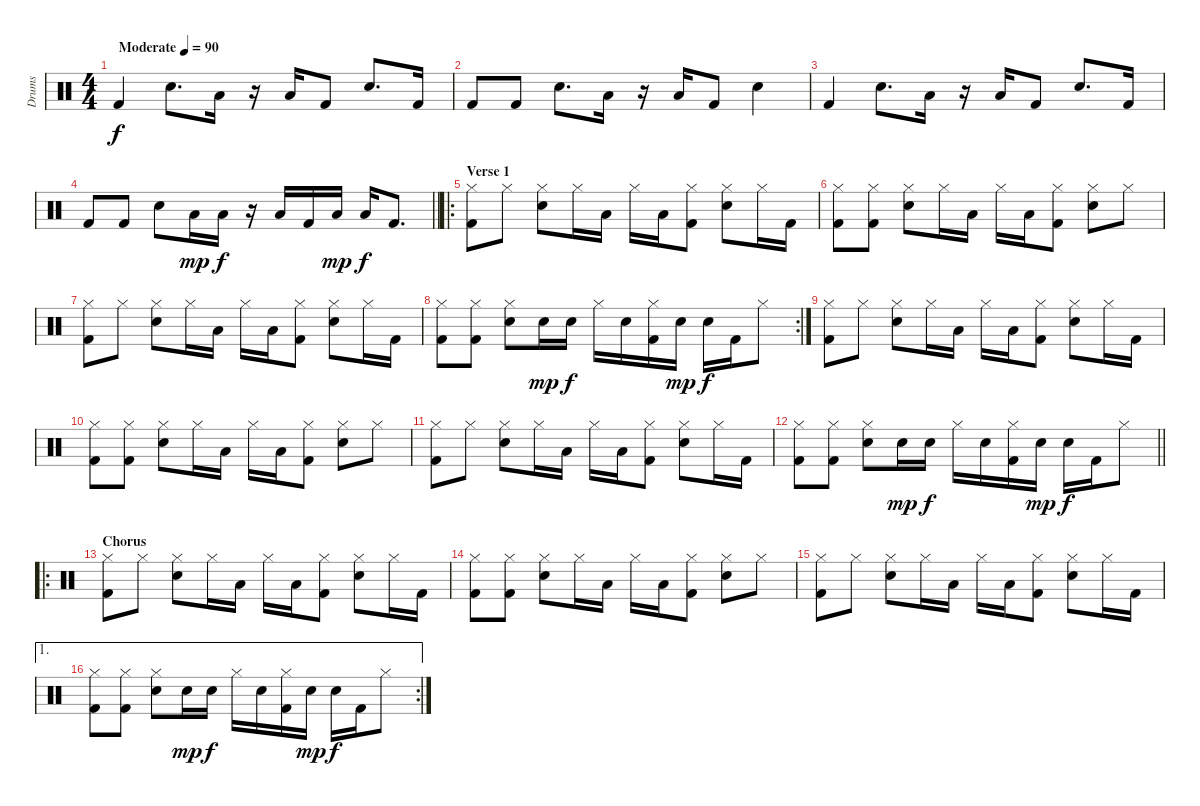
\track ("Drums" "Drums") {instrument percussion}
\staff {score}
\articulation defaults
\ts (4 4)
\tempo (90 "Moderate")
\clef neutral
\ks c "Kick (hit) 2".4{dy f} "Hand Clap (hit)".8{d} "Low Tom (hit)".16
r.16 "Low Tom (hit)".16 "Kick (hit) 2".8 "Hand Clap (hit)".8{d} "Kick (hit) 2".16 |
"Kick (hit) 2".8 "Kick (hit) 2".8 "Hand Clap (hit)".8{d} "Low Tom (hit)".16 r.16 "Low Tom (hit)".16 "Kick (hit) 2".8 "Hand Clap (hit)".4 |
"Kick (hit) 2".4 "Hand Clap (hit)".8{d} "Low Tom (hit)".16 r.16 "Low Tom (hit)".16 "Kick (hit) 2".8 "Hand Clap (hit)".8{d} "Kick (hit) 2".16 |
\barLineRight lightlight "Kick (hit) 2".8 "Kick (hit) 2".8 "Hand Clap (hit)".8 "Low Tom (hit)".16{dy mp} "Low Tom (hit)".16{dy f}
r.16 "Low Tom (hit)".16 "Kick (hit) 2".16 "Low Tom (hit)".16{dy mp} "Low Tom (hit)".16{dy f} "Kick (hit) 2".8{d} |
\ro
\section ("" "Verse 1")
("Hi-Hat (closed)" "Kick (hit) 2").8 "Hi-Hat (closed)".8 ("Hand Clap (hit)" "Hi-Hat (closed)").8 "Hi-Hat (closed)".16 "Low Tom (hit)".16 "Hi-Hat (closed)".16 "Low Tom (hit)".16 ("Hi-Hat (closed)" "Kick (hit) 2").8 ("Hand Clap (hit)" "Hi-Hat (closed)").8 "Hi-Hat (closed)".16 "Kick (hit) 2".16 |
("Hi-Hat (closed)" "Kick (hit) 2").8 ("Hi-Hat (closed)" "Kick (hit) 2").8 ("Hand Clap (hit)" "Hi-Hat (closed)").8 "Hi-Hat (closed)".16 "Low Tom (hit)".16 "Hi-Hat (closed)".16 "Low Tom (hit)".16 ("Hi-Hat (closed)" "Kick (hit) 2").8 ("Hand Clap (hit)" "Hi-Hat (closed)").8 "Hi-Hat (closed)".8 |
("Hi-Hat (closed)" "Kick (hit) 2").8 "Hi-Hat (closed)".8 ("Hand Clap (hit)" "Hi-Hat (closed)").8 "Hi-Hat (closed)".16 "Low Tom (hit)".16 "Hi-Hat (closed)".16 "Low Tom (hit)".16 ("Hi-Hat (closed)" "Kick (hit) 2").8 ("Hand Clap (hit)" "Hi-Hat (closed)").8 "Hi-Hat (closed)".16 "Kick (hit) 2".16 |
\rc 2
("Hi-Hat (closed)" "Kick (hit) 2").8 ("Hi-Hat (closed)" "Kick (hit) 2").8 ("Hand Clap (hit)" "Hi-Hat (closed)").8 "Electric Snare (hit)".16{dy mp} "Electric Snare (hit)".16{dy f} "Hi-Hat (closed)".16 "Electric Snare (hit)".16 ("Hi-Hat (closed)" "Kick (hit) 2").16 "Electric Snare (hit)".16{dy mp} "Electric Snare (hit)".16{dy f} "Kick (hit) 2".16 "Hi-Hat (closed)".8 |
("Hi-Hat (closed)" "Kick (hit) 2").8 "Hi-Hat (closed)".8 ("Hand Clap (hit)" "Hi-Hat (closed)").8 "Hi-Hat (closed)".16 "Low Tom (hit)".16 "Hi-Hat (closed)".16 "Low Tom (hit)".16 ("Hi-Hat (closed)" "Kick (hit) 2").8 ("Hand Clap (hit)" "Hi-Hat (closed)").8 "Hi-Hat (closed)".16 "Kick (hit) 2".16 |
("Hi-Hat (closed)" "Kick (hit) 2").8 ("Hi-Hat (closed)" "Kick (hit) 2").8 ("Hand Clap (hit)" "Hi-Hat (closed)").8 "Hi-Hat (closed)".16 "Low Tom (hit)".16 "Hi-Hat (closed)".16 "Low Tom (hit)".16 ("Hi-Hat (closed)" "Kick (hit) 2").8 ("Hand Clap (hit)" "Hi-Hat (closed)").8 "Hi-Hat (closed)".8 |
("Hi-Hat (closed)" "Kick (hit) 2").8 "Hi-Hat (closed)".8 ("Hand Clap (hit)" "Hi-Hat (closed)").8 "Hi-Hat (closed)".16 "Low Tom (hit)".16 "Hi-Hat (closed)".16 "Low Tom (hit)".16 ("Hi-Hat (closed)" "Kick (hit) 2").8 ("Hand Clap (hit)" "Hi-Hat (closed)").8 "Hi-Hat (closed)".16 "Kick (hit) 2".16 |
\barLineRight lightlight
("Hi-Hat (closed)" "Kick (hit) 2").8 ("Hi-Hat (closed)" "Kick (hit) 2").8 ("Hand Clap (hit)" "Hi-Hat (closed)").8 "Electric Snare (hit)".16{dy mp} "Electric Snare (hit)".16{dy f} "Hi-Hat (closed)".16 "Electric Snare (hit)".16 ("Hi-Hat (closed)" "Kick (hit) 2").16 "Electric Snare (hit)".16{dy mp} "Electric Snare (hit)".16{dy f} "Kick (hit) 2".16 "Hi-Hat (closed)".8 |
\ro
\section ("" "Chorus")
("Hi-Hat (closed)" "Kick (hit) 2").8 "Hi-Hat (closed)".8 ("Hand Clap (hit)" "Hi-Hat (closed)").8 "Hi-Hat (closed)".16 "Low Tom (hit)".16 "Hi-Hat (closed)".16 "Low Tom (hit)".16 ("Hi-Hat (closed)" "Kick (hit) 2").8 ("Hand Clap (hit)" "Hi-Hat (closed)").8 "Hi-Hat (closed)".16 "Kick (hit) 2".16 |
("Hi-Hat (closed)" "Kick (hit) 2").8 ("Hi-Hat (closed)" "Kick (hit) 2").8 ("Hand Clap (hit)" "Hi-Hat (closed)").8 "Hi-Hat (closed)".16 "Low Tom (hit)".16 "Hi-Hat (closed)".16 "Low Tom (hit)".16 ("Hi-Hat (closed)" "Kick (hit) 2").8 ("Hand Clap (hit)" "Hi-Hat (closed)").8 "Hi-Hat (closed)".8 |
("Hi-Hat (closed)" "Kick (hit) 2").8 "Hi-Hat (closed)".8 ("Hand Clap (hit)" "Hi-Hat (closed)").8 "Hi-Hat (closed)".16 "Low Tom (hit)".16 "Hi-Hat (closed)".16 "Low Tom (hit)".16 ("Hi-Hat (closed)" "Kick (hit) 2").8 ("Hand Clap (hit)" "Hi-Hat (closed)").8 "Hi-Hat (closed)".16 "Kick (hit) 2".16 |
\ae 1
\rc 2
("Hi-Hat (closed)" "Kick (hit) 2").8 ("Hi-Hat (closed)" "Kick (hit) 2").8 ("Hand Clap (hit)" "Hi-Hat (closed)").8 "Electric Snare (hit)".16{dy mp} "Electric Snare (hit)".16{dy f} "Hi-Hat (closed)".16 "Electric Snare (hit)".16 ("Hi-Hat (closed)" "Kick (hit) 2").16 "Electric Snare (hit)".16{dy mp} "Electric Snare (hit)".16{dy f} "Kick (hit) 2".16 "Hi-Hat (closed)".8
